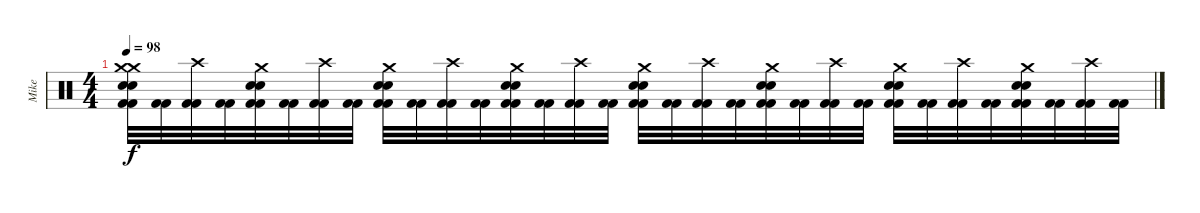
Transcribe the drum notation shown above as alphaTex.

\track ("Mike" "Mike") {instrument percussion}
\staff {score}
\articulation defaults
\ts (4 4)
\tempo 98
\clef neutral
\ks c
("Crash medium (hit)" "Electric Snare (hit)" "Electric Snare (hit)" "Crash medium (hit)" "Kick (hit) 2" "Kick (hit) 2").32{dy f} ("Kick (hit) 2" "Kick (hit) 2").32 ("Crash high (hit)" "Kick (hit) 2" "Kick (hit) 2").32 ("Kick (hit) 2" "Kick (hit) 2").32 ("Crash medium (hit)" "Electric Snare (hit)" "Electric Snare (hit)" "Kick (hit) 2" "Kick (hit) 2").32 ("Kick (hit) 2" "Kick (hit) 2").32 ("Crash high (hit)" "Kick (hit) 2" "Kick (hit) 2").32 ("Kick (hit) 2" "Kick (hit) 2").32 ("Crash medium (hit)" "Electric Snare (hit)" "Electric Snare (hit)" "Kick (hit) 2" "Kick (hit) 2").32 ("Kick (hit) 2" "Kick (hit) 2").32 ("Crash high (hit)" "Kick (hit) 2" "Kick (hit) 2").32 ("Kick (hit) 2" "Kick (hit) 2").32 ("Crash medium (hit)" "Electric Snare (hit)" "Electric Snare (hit)" "Kick (hit) 2" "Kick (hit) 2").32 ("Kick (hit) 2" "Kick (hit) 2").32 ("Crash high (hit)" "Kick (hit) 2" "Kick (hit) 2").32 ("Kick (hit) 2" "Kick (hit) 2").32 ("Crash medium (hit)" "Electric Snare (hit)" "Electric Snare (hit)" "Kick (hit) 2" "Kick (hit) 2").32 ("Kick (hit) 2" "Kick (hit) 2").32 ("Crash high (hit)" "Kick (hit) 2" "Kick (hit) 2").32 ("Kick (hit) 2" "Kick (hit) 2").32 ("Crash medium (hit)" "Electric Snare (hit)" "Electric Snare (hit)" "Kick (hit) 2" "Kick (hit) 2").32 ("Kick (hit) 2" "Kick (hit) 2").32 ("Crash high (hit)" "Kick (hit) 2" "Kick (hit) 2").32 ("Kick (hit) 2" "Kick (hit) 2").32 ("Crash medium (hit)" "Electric Snare (hit)" "Electric Snare (hit)" "Kick (hit) 2" "Kick (hit) 2").32 ("Kick (hit) 2" "Kick (hit) 2").32 ("Crash high (hit)" "Kick (hit) 2" "Kick (hit) 2").32 ("Kick (hit) 2" "Kick (hit) 2").32 ("Crash medium (hit)" "Electric Snare (hit)" "Electric Snare (hit)" "Kick (hit) 2" "Kick (hit) 2").32 ("Kick (hit) 2" "Kick (hit) 2").32 ("Crash high (hit)" "Kick (hit) 2" "Kick (hit) 2").32 ("Kick (hit) 2" "Kick (hit) 2").32
